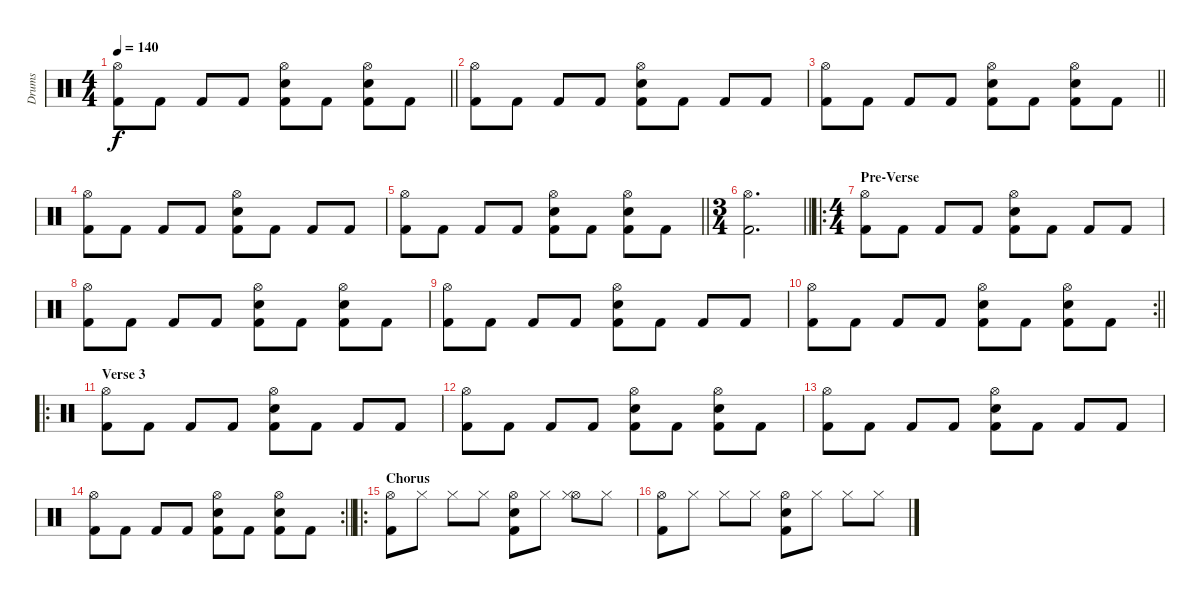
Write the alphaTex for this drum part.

\track ("Drums" "Drums") {instrument percussion}
\staff {score}
\articulation defaults
\ts (4 4)
\tempo 140
\clef neutral
\barLineRight lightlight
\ks c
("Hi-Hat (open)" "Kick (hit) 2").8{dy f} "Kick (hit) 2".8 "Kick (hit) 2".8 "Kick (hit) 2".8 ("Hi-Hat (open)" "Snare (hit) 2" "Kick (hit) 2").8 "Kick (hit) 2".8 ("Hi-Hat (open)" "Snare (hit) 2" "Kick (hit) 2").8 "Kick (hit) 2".8 |
("Hi-Hat (open)" "Kick (hit) 2").8 "Kick (hit) 2".8 "Kick (hit) 2".8 "Kick (hit) 2".8 ("Hi-Hat (open)" "Snare (hit) 2" "Kick (hit) 2").8 "Kick (hit) 2".8 "Kick (hit) 2".8 "Kick (hit) 2".8 |
\barLineRight lightlight
("Hi-Hat (open)" "Kick (hit) 2").8 "Kick (hit) 2".8 "Kick (hit) 2".8 "Kick (hit) 2".8 ("Hi-Hat (open)" "Snare (hit) 2" "Kick (hit) 2").8 "Kick (hit) 2".8 ("Hi-Hat (open)" "Snare (hit) 2" "Kick (hit) 2").8 "Kick (hit) 2".8 |
("Hi-Hat (open)" "Kick (hit) 2").8 "Kick (hit) 2".8 "Kick (hit) 2".8 "Kick (hit) 2".8 ("Hi-Hat (open)" "Snare (hit) 2" "Kick (hit) 2").8 "Kick (hit) 2".8 "Kick (hit) 2".8 "Kick (hit) 2".8 |
\barLineRight lightlight
("Hi-Hat (open)" "Kick (hit) 2").8 "Kick (hit) 2".8 "Kick (hit) 2".8 "Kick (hit) 2".8 ("Hi-Hat (open)" "Snare (hit) 2" "Kick (hit) 2").8 "Kick (hit) 2".8 ("Hi-Hat (open)" "Snare (hit) 2" "Kick (hit) 2").8 "Kick (hit) 2".8 |
\ts (3 4)
\barLineRight lightlight
("Hi-Hat (open)" "Kick (hit) 2").2{d} |
\ro
\ts (4 4)
\section ("" "Pre-Verse")
("Hi-Hat (open)" "Kick (hit) 2").8 "Kick (hit) 2".8 "Kick (hit) 2".8 "Kick (hit) 2".8 ("Hi-Hat (open)" "Snare (hit) 2" "Kick (hit) 2").8 "Kick (hit) 2".8 "Kick (hit) 2".8 "Kick (hit) 2".8 |
("Hi-Hat (open)" "Kick (hit) 2").8 "Kick (hit) 2".8 "Kick (hit) 2".8 "Kick (hit) 2".8 ("Hi-Hat (open)" "Snare (hit) 2" "Kick (hit) 2").8 "Kick (hit) 2".8 ("Hi-Hat (open)" "Snare (hit) 2" "Kick (hit) 2").8 "Kick (hit) 2".8 |
("Hi-Hat (open)" "Kick (hit) 2").8 "Kick (hit) 2".8 "Kick (hit) 2".8 "Kick (hit) 2".8 ("Hi-Hat (open)" "Snare (hit) 2" "Kick (hit) 2").8 "Kick (hit) 2".8 "Kick (hit) 2".8 "Kick (hit) 2".8 |
\rc 2
\barLineRight lightlight
("Hi-Hat (open)" "Kick (hit) 2").8 "Kick (hit) 2".8 "Kick (hit) 2".8 "Kick (hit) 2".8 ("Hi-Hat (open)" "Snare (hit) 2" "Kick (hit) 2").8 "Kick (hit) 2".8 ("Hi-Hat (open)" "Snare (hit) 2" "Kick (hit) 2").8 "Kick (hit) 2".8 |
\ro
\section ("" "Verse 3")
("Hi-Hat (open)" "Kick (hit) 2").8 "Kick (hit) 2".8 "Kick (hit) 2".8 "Kick (hit) 2".8 ("Hi-Hat (open)" "Snare (hit) 2" "Kick (hit) 2").8 "Kick (hit) 2".8 "Kick (hit) 2".8 "Kick (hit) 2".8 |
("Hi-Hat (open)" "Kick (hit) 2").8 "Kick (hit) 2".8 "Kick (hit) 2".8 "Kick (hit) 2".8 ("Hi-Hat (open)" "Snare (hit) 2" "Kick (hit) 2").8 "Kick (hit) 2".8 ("Hi-Hat (open)" "Snare (hit) 2" "Kick (hit) 2").8 "Kick (hit) 2".8 |
("Hi-Hat (open)" "Kick (hit) 2").8 "Kick (hit) 2".8 "Kick (hit) 2".8 "Kick (hit) 2".8 ("Hi-Hat (open)" "Snare (hit) 2" "Kick (hit) 2").8 "Kick (hit) 2".8 "Kick (hit) 2".8 "Kick (hit) 2".8 |
\rc 2
\barLineRight lightlight
("Hi-Hat (open)" "Kick (hit) 2").8 "Kick (hit) 2".8 "Kick (hit) 2".8 "Kick (hit) 2".8 ("Hi-Hat (open)" "Snare (hit) 2" "Kick (hit) 2").8 "Kick (hit) 2".8 ("Hi-Hat (open)" "Snare (hit) 2" "Kick (hit) 2").8 "Kick (hit) 2".8 |
\ro
\section ("" "Chorus")
("Hi-Hat (open)" "Kick (hit) 2").8 "Hi-Hat (closed)".8 "Hi-Hat (closed)".8 "Hi-Hat (closed)".8 ("Hi-Hat (open)" "Snare (hit) 2" "Kick (hit) 2").8 "Hi-Hat (closed)".8 ("Hi-Hat (open)" "Hi-Hat (closed)").8 "Hi-Hat (closed)".8 |
("Hi-Hat (open)" "Kick (hit) 2").8 "Hi-Hat (closed)".8 "Hi-Hat (closed)".8 "Hi-Hat (closed)".8 ("Hi-Hat (open)" "Snare (hit) 2" "Kick (hit) 2").8 "Hi-Hat (closed)".8 "Hi-Hat (closed)".8 "Hi-Hat (closed)".8
